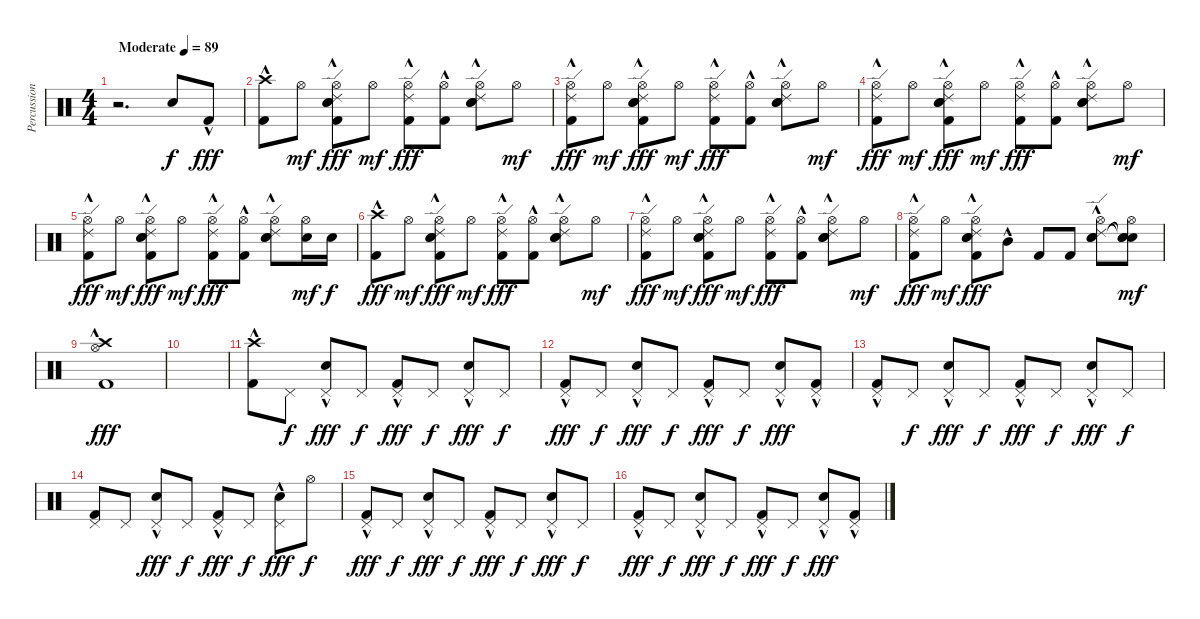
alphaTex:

\track ("Percussion" "Percussion") {instrument percussion}
\staff {score}
\articulation defaults
\ts (4 4)
\tempo (89 "Moderate")
\clef neutral
\ks c
r.2{d dy f} "Snare (hit) 2".8 "Kick (hit) 2"{hac}.8{dy fff} |
("Crash high (hit)" "Kick (hit) 2"{hac}).8 "Hi-Hat (open)".8{dy mf} ("Snare (hit) 2" "Ride (edge) 2" "Hi-Hat (open)" "Electric Snare (hit)"{hac} "Kick (hit) 2"{hac}).8{dy fff} "Hi-Hat (open)".8{dy mf} ("Ride (edge) 2" "Hi-Hat (open)" "Kick (hit) 2"{hac}).8{dy fff} ("Hi-Hat (open)" "Kick (hit) 2"{hac}).8 ("Snare (hit) 2" "Ride (edge) 2" "Hi-Hat (open)" "Electric Snare (hit)"{hac}).8 "Hi-Hat (open)".8{dy mf} |
("Ride (edge) 2" "Hi-Hat (open)" "Kick (hit) 2"{hac}).8{dy fff} "Hi-Hat (open)".8{dy mf} ("Snare (hit) 2" "Ride (edge) 2" "Hi-Hat (open)" "Electric Snare (hit)"{hac} "Kick (hit) 2"{hac}).8{dy fff} "Hi-Hat (open)".8{dy mf} ("Ride (edge) 2" "Hi-Hat (open)" "Kick (hit) 2"{hac}).8{dy fff} ("Hi-Hat (open)" "Kick (hit) 2"{hac}).8 ("Snare (hit) 2" "Ride (edge) 2" "Hi-Hat (open)" "Electric Snare (hit)"{hac}).8 "Hi-Hat (open)".8{dy mf} |
("Ride (edge) 2" "Hi-Hat (open)" "Kick (hit) 2"{hac}).8{dy fff} "Hi-Hat (open)".8{dy mf} ("Snare (hit) 2" "Ride (edge) 2" "Hi-Hat (open)" "Electric Snare (hit)"{hac} "Kick (hit) 2"{hac}).8{dy fff} "Hi-Hat (open)".8{dy mf} ("Ride (edge) 2" "Hi-Hat (open)" "Kick (hit) 2"{hac}).8{dy fff} ("Hi-Hat (open)" "Kick (hit) 2"{hac}).8 ("Snare (hit) 2" "Ride (edge) 2" "Hi-Hat (open)" "Electric Snare (hit)"{hac}).8 "Hi-Hat (open)".8{dy mf} |
("Ride (edge) 2" "Hi-Hat (open)" "Kick (hit) 2"{hac}).8{dy fff} "Hi-Hat (open)".8{dy mf} ("Snare (hit) 2" "Ride (edge) 2" "Hi-Hat (open)" "Electric Snare (hit)"{hac} "Kick (hit) 2"{hac}).8{dy fff} "Hi-Hat (open)".8{dy mf} ("Ride (edge) 2" "Hi-Hat (open)" "Kick (hit) 2"{hac}).8{dy fff} ("Hi-Hat (open)" "Kick (hit) 2"{hac}).8 ("Snare (hit) 2" "Ride (edge) 2" "Hi-Hat (open)" "Electric Snare (hit)"{hac}).8 ("Hi-Hat (open)" "Electric Snare (hit)").16{dy mf} "Electric Snare (hit)".16{dy f} |
("Crash high (hit)" "Kick (hit) 2"{hac}).8{dy fff} "Hi-Hat (open)".8{dy mf} ("Snare (hit) 2" "Ride (edge) 2" "Hi-Hat (open)" "Electric Snare (hit)"{hac} "Kick (hit) 2"{hac}).8{dy fff} "Hi-Hat (open)".8{dy mf} ("Ride (edge) 2" "Hi-Hat (open)" "Kick (hit) 2"{hac}).8{dy fff} ("Hi-Hat (open)" "Kick (hit) 2"{hac}).8 ("Snare (hit) 2" "Ride (edge) 2" "Hi-Hat (open)" "Electric Snare (hit)"{hac}).8 "Hi-Hat (open)".8{dy mf} |
("Ride (edge) 2" "Hi-Hat (open)" "Kick (hit) 2"{hac}).8{dy fff} "Hi-Hat (open)".8{dy mf} ("Snare (hit) 2" "Ride (edge) 2" "Hi-Hat (open)" "Electric Snare (hit)"{hac} "Kick (hit) 2"{hac}).8{dy fff} "Hi-Hat (open)".8{dy mf} ("Ride (edge) 2" "Hi-Hat (open)" "Kick (hit) 2"{hac}).8{dy fff} ("Hi-Hat (open)" "Kick (hit) 2"{hac}).8 ("Snare (hit) 2" "Ride (edge) 2" "Hi-Hat (open)" "Electric Snare (hit)"{hac}).8 "Hi-Hat (open)".8{dy mf} |
("Ride (edge) 2" "Hi-Hat (open)" "Kick (hit) 2"{hac}).8{dy fff} "Hi-Hat (open)".8{dy mf} ("Snare (hit) 2" "Ride (edge) 2" "Hi-Hat (open)" "Electric Snare (hit)"{hac} "Kick (hit) 2"{hac}).8{dy fff} "Mid Tom (hit)"{hac}.8 "Kick (hit) 2".8 "Kick (hit) 2".8 ("Snare (hit) 2"{hac} "Ride (edge) 2" "Hi-Hat (open)" "Electric Snare (hit)"{hac}).8 ("Snare (hit)"{t} "Snare (hit)"{t} "Hi-Hat (open)" "Snare (hit)"{t}).8{dy mf} |
("Crash high (hit)" "Hi-Hat (open)" "Kick (hit) 2"{hac}).1{dy fff} |
|
("Crash high (hit)" "Kick (hit) 2"{hac}).8 "Pedal Hi-Hat (hit)".8{dy f} ("Pedal Hi-Hat (hit)" "Electric Snare (hit)"{hac}).8{dy fff} "Pedal Hi-Hat (hit)".8{dy f} ("Pedal Hi-Hat (hit)" "Kick (hit) 2"{hac}).8{dy fff} "Pedal Hi-Hat (hit)".8{dy f} ("Pedal Hi-Hat (hit)" "Electric Snare (hit)"{hac}).8{dy fff} "Pedal Hi-Hat (hit)".8{dy f} |
("Pedal Hi-Hat (hit)" "Kick (hit) 2"{hac}).8{dy fff} "Pedal Hi-Hat (hit)".8{dy f} ("Pedal Hi-Hat (hit)" "Electric Snare (hit)"{hac}).8{dy fff} "Pedal Hi-Hat (hit)".8{dy f} ("Pedal Hi-Hat (hit)" "Kick (hit) 2"{hac}).8{dy fff} "Pedal Hi-Hat (hit)".8{dy f} ("Pedal Hi-Hat (hit)" "Electric Snare (hit)"{hac}).8{dy fff} ("Pedal Hi-Hat (hit)" "Kick (hit) 2"{hac}).8 |
("Pedal Hi-Hat (hit)" "Kick (hit) 2"{hac}).8 "Pedal Hi-Hat (hit)".8{dy f} ("Pedal Hi-Hat (hit)" "Electric Snare (hit)"{hac}).8{dy fff} "Pedal Hi-Hat (hit)".8{dy f} ("Pedal Hi-Hat (hit)" "Kick (hit) 2"{hac}).8{dy fff} "Pedal Hi-Hat (hit)".8{dy f} ("Pedal Hi-Hat (hit)" "Electric Snare (hit)"{hac}).8{dy fff} "Pedal Hi-Hat (hit)".8{dy f} |
("Pedal Hi-Hat (hit)" "Kick (hit) 2").8 "Pedal Hi-Hat (hit)".8 ("Pedal Hi-Hat (hit)" "Electric Snare (hit)"{hac}).8{dy fff} "Pedal Hi-Hat (hit)".8{dy f} ("Pedal Hi-Hat (hit)" "Kick (hit) 2"{hac}).8{dy fff} "Pedal Hi-Hat (hit)".8{dy f} ("Pedal Hi-Hat (hit)" "Electric Snare (hit)"{hac}).8{dy fff} "Hi-Hat (open)".8{dy f} |
("Pedal Hi-Hat (hit)" "Kick (hit) 2"{hac}).8{dy fff} "Pedal Hi-Hat (hit)".8{dy f} ("Pedal Hi-Hat (hit)" "Electric Snare (hit)"{hac}).8{dy fff} "Pedal Hi-Hat (hit)".8{dy f} ("Pedal Hi-Hat (hit)" "Kick (hit) 2"{hac}).8{dy fff} "Pedal Hi-Hat (hit)".8{dy f} ("Pedal Hi-Hat (hit)" "Electric Snare (hit)"{hac}).8{dy fff} "Pedal Hi-Hat (hit)".8{dy f} |
("Pedal Hi-Hat (hit)" "Kick (hit) 2"{hac}).8{dy fff} "Pedal Hi-Hat (hit)".8{dy f} ("Pedal Hi-Hat (hit)" "Electric Snare (hit)"{hac}).8{dy fff} "Pedal Hi-Hat (hit)".8{dy f} ("Pedal Hi-Hat (hit)" "Kick (hit) 2"{hac}).8{dy fff} "Pedal Hi-Hat (hit)".8{dy f} ("Pedal Hi-Hat (hit)" "Electric Snare (hit)"{hac}).8{dy fff} ("Pedal Hi-Hat (hit)" "Kick (hit) 2"{hac}).8
